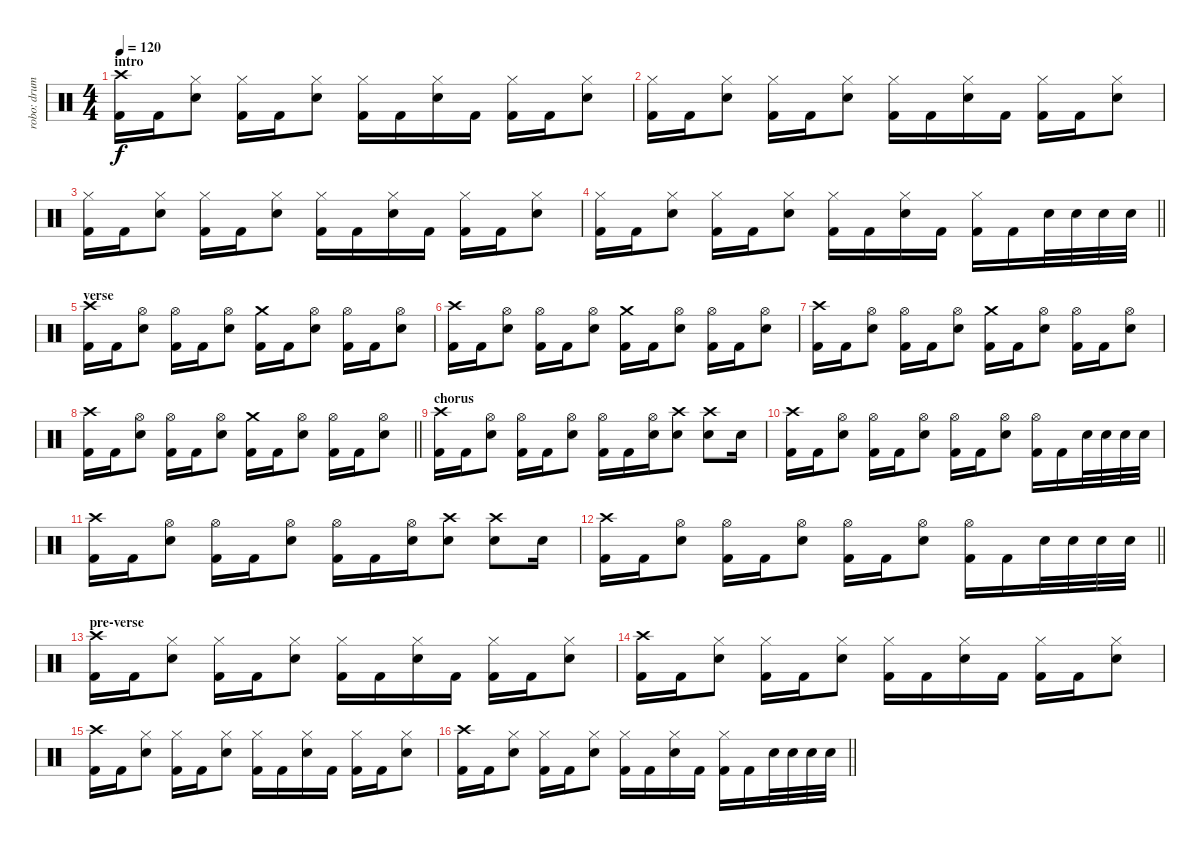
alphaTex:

\track ("robo: drums" "robo: drum") {instrument percussion}
\staff {score}
\articulation defaults
\ts (4 4)
\section ("" "intro")
\tempo 120
\clef neutral
\ks c
("Crash high (hit)" "Kick (hit) 2").16{dy f} "Kick (hit) 2".16 ("Hi-Hat (closed)" "Snare (hit) 2").8 ("Hi-Hat (closed)" "Kick (hit) 2").16 "Kick (hit) 2".16 ("Hi-Hat (closed)" "Snare (hit) 2").8 ("Hi-Hat (closed)" "Kick (hit) 2").16 "Kick (hit) 2".16 ("Hi-Hat (closed)" "Snare (hit) 2").16 "Kick (hit) 2".16 ("Hi-Hat (closed)" "Kick (hit) 2").16 "Kick (hit) 2".16 ("Hi-Hat (closed)" "Snare (hit) 2").8 |
("Hi-Hat (closed)" "Kick (hit) 2").16 "Kick (hit) 2".16 ("Hi-Hat (closed)" "Snare (hit) 2").8 ("Hi-Hat (closed)" "Kick (hit) 2").16 "Kick (hit) 2".16 ("Hi-Hat (closed)" "Snare (hit) 2").8 ("Hi-Hat (closed)" "Kick (hit) 2").16 "Kick (hit) 2".16 ("Hi-Hat (closed)" "Snare (hit) 2").16 "Kick (hit) 2".16 ("Hi-Hat (closed)" "Kick (hit) 2").16 "Kick (hit) 2".16 ("Hi-Hat (closed)" "Snare (hit) 2").8 |
("Hi-Hat (closed)" "Kick (hit) 2").16 "Kick (hit) 2".16 ("Hi-Hat (closed)" "Snare (hit) 2").8 ("Hi-Hat (closed)" "Kick (hit) 2").16 "Kick (hit) 2".16 ("Hi-Hat (closed)" "Snare (hit) 2").8 ("Hi-Hat (closed)" "Kick (hit) 2").16 "Kick (hit) 2".16 ("Hi-Hat (closed)" "Snare (hit) 2").16 "Kick (hit) 2".16 ("Hi-Hat (closed)" "Kick (hit) 2").16 "Kick (hit) 2".16 ("Hi-Hat (closed)" "Snare (hit) 2").8 |
\barLineRight lightlight
("Hi-Hat (closed)" "Kick (hit) 2").16 "Kick (hit) 2".16 ("Hi-Hat (closed)" "Snare (hit) 2").8 ("Hi-Hat (closed)" "Kick (hit) 2").16 "Kick (hit) 2".16 ("Hi-Hat (closed)" "Snare (hit) 2").8 ("Hi-Hat (closed)" "Kick (hit) 2").16 "Kick (hit) 2".16 ("Hi-Hat (closed)" "Snare (hit) 2").16 "Kick (hit) 2".16 ("Hi-Hat (closed)" "Kick (hit) 2").16 "Kick (hit) 2".16 "Snare (hit) 2".32 "Snare (hit) 2".32 "Snare (hit) 2".32 "Snare (hit) 2".32 |
\section ("" "verse")
("Crash high (hit)" "Kick (hit) 2").16 "Kick (hit) 2".16 ("Hi-Hat (open)" "Snare (hit) 2").8 ("Hi-Hat (open)" "Kick (hit) 2").16 "Kick (hit) 2".16 ("Hi-Hat (open)" "Snare (hit) 2").8 ("Crash medium (hit)" "Kick (hit) 2").16 "Kick (hit) 2".16 ("Hi-Hat (open)" "Snare (hit) 2").8 ("Hi-Hat (open)" "Kick (hit) 2").16 "Kick (hit) 2".16 ("Hi-Hat (open)" "Snare (hit) 2").8 |
("Crash high (hit)" "Kick (hit) 2").16 "Kick (hit) 2".16 ("Hi-Hat (open)" "Snare (hit) 2").8 ("Hi-Hat (open)" "Kick (hit) 2").16 "Kick (hit) 2".16 ("Hi-Hat (open)" "Snare (hit) 2").8 ("Crash medium (hit)" "Kick (hit) 2").16 "Kick (hit) 2".16 ("Hi-Hat (open)" "Snare (hit) 2").8 ("Hi-Hat (open)" "Kick (hit) 2").16 "Kick (hit) 2".16 ("Hi-Hat (open)" "Snare (hit) 2").8 |
("Crash high (hit)" "Kick (hit) 2").16 "Kick (hit) 2".16 ("Hi-Hat (open)" "Snare (hit) 2").8 ("Hi-Hat (open)" "Kick (hit) 2").16 "Kick (hit) 2".16 ("Hi-Hat (open)" "Snare (hit) 2").8 ("Crash medium (hit)" "Kick (hit) 2").16 "Kick (hit) 2".16 ("Hi-Hat (open)" "Snare (hit) 2").8 ("Hi-Hat (open)" "Kick (hit) 2").16 "Kick (hit) 2".16 ("Hi-Hat (open)" "Snare (hit) 2").8 |
\barLineRight lightlight
("Crash high (hit)" "Kick (hit) 2").16 "Kick (hit) 2".16 ("Hi-Hat (open)" "Snare (hit) 2").8 ("Hi-Hat (open)" "Kick (hit) 2").16 "Kick (hit) 2".16 ("Hi-Hat (open)" "Snare (hit) 2").8 ("Crash medium (hit)" "Kick (hit) 2").16 "Kick (hit) 2".16 ("Hi-Hat (open)" "Snare (hit) 2").8 ("Hi-Hat (open)" "Kick (hit) 2").16 "Kick (hit) 2".16 ("Hi-Hat (open)" "Snare (hit) 2").8 |
\section ("" "chorus")
("Crash high (hit)" "Kick (hit) 2").16 "Kick (hit) 2".16 ("Hi-Hat (open)" "Snare (hit) 2").8 ("Hi-Hat (open)" "Kick (hit) 2").16 "Kick (hit) 2".16 ("Hi-Hat (open)" "Snare (hit) 2").8 ("Hi-Hat (open)" "Kick (hit) 2").16 "Kick (hit) 2".16 ("Hi-Hat (open)" "Snare (hit) 2").16 ("Crash high (hit)" "Snare (hit) 2").8 ("Crash high (hit)" "Snare (hit) 2").8 "Snare (hit) 2".16 |
("Crash high (hit)" "Kick (hit) 2").16 "Kick (hit) 2".16 ("Hi-Hat (open)" "Snare (hit) 2").8 ("Hi-Hat (open)" "Kick (hit) 2").16 "Kick (hit) 2".16 ("Hi-Hat (open)" "Snare (hit) 2").8 ("Hi-Hat (open)" "Kick (hit) 2").16 "Kick (hit) 2".16 ("Hi-Hat (open)" "Snare (hit) 2").8 ("Hi-Hat (open)" "Kick (hit) 2").16 "Kick (hit) 2".16 "Snare (hit) 2".32 "Snare (hit) 2".32 "Snare (hit) 2".32 "Snare (hit) 2".32 |
("Crash high (hit)" "Kick (hit) 2").16 "Kick (hit) 2".16 ("Hi-Hat (open)" "Snare (hit) 2").8 ("Hi-Hat (open)" "Kick (hit) 2").16 "Kick (hit) 2".16 ("Hi-Hat (open)" "Snare (hit) 2").8 ("Hi-Hat (open)" "Kick (hit) 2").16 "Kick (hit) 2".16 ("Hi-Hat (open)" "Snare (hit) 2").16 ("Crash high (hit)" "Snare (hit) 2").8 ("Crash high (hit)" "Snare (hit) 2").8 "Snare (hit) 2".16 |
\barLineRight lightlight
("Crash high (hit)" "Kick (hit) 2").16 "Kick (hit) 2".16 ("Hi-Hat (open)" "Snare (hit) 2").8 ("Hi-Hat (open)" "Kick (hit) 2").16 "Kick (hit) 2".16 ("Hi-Hat (open)" "Snare (hit) 2").8 ("Hi-Hat (open)" "Kick (hit) 2").16 "Kick (hit) 2".16 ("Hi-Hat (open)" "Snare (hit) 2").8 ("Hi-Hat (open)" "Kick (hit) 2").16 "Kick (hit) 2".16 "Snare (hit) 2".32 "Snare (hit) 2".32 "Snare (hit) 2".32 "Snare (hit) 2".32 |
\section ("" "pre-verse")
("Crash high (hit)" "Kick (hit) 2").16 "Kick (hit) 2".16 ("Hi-Hat (closed)" "Snare (hit) 2").8 ("Hi-Hat (closed)" "Kick (hit) 2").16 "Kick (hit) 2".16 ("Hi-Hat (closed)" "Snare (hit) 2").8 ("Hi-Hat (closed)" "Kick (hit) 2").16 "Kick (hit) 2".16 ("Hi-Hat (closed)" "Snare (hit) 2").16 "Kick (hit) 2".16 ("Hi-Hat (closed)" "Kick (hit) 2").16 "Kick (hit) 2".16 ("Hi-Hat (closed)" "Snare (hit) 2").8 |
("Crash high (hit)" "Kick (hit) 2").16 "Kick (hit) 2".16 ("Hi-Hat (closed)" "Snare (hit) 2").8 ("Hi-Hat (closed)" "Kick (hit) 2").16 "Kick (hit) 2".16 ("Hi-Hat (closed)" "Snare (hit) 2").8 ("Hi-Hat (closed)" "Kick (hit) 2").16 "Kick (hit) 2".16 ("Hi-Hat (closed)" "Snare (hit) 2").16 "Kick (hit) 2".16 ("Hi-Hat (closed)" "Kick (hit) 2").16 "Kick (hit) 2".16 ("Hi-Hat (closed)" "Snare (hit) 2").8 |
("Crash high (hit)" "Kick (hit) 2").16 "Kick (hit) 2".16 ("Hi-Hat (closed)" "Snare (hit) 2").8 ("Hi-Hat (closed)" "Kick (hit) 2").16 "Kick (hit) 2".16 ("Hi-Hat (closed)" "Snare (hit) 2").8 ("Hi-Hat (closed)" "Kick (hit) 2").16 "Kick (hit) 2".16 ("Hi-Hat (closed)" "Snare (hit) 2").16 "Kick (hit) 2".16 ("Hi-Hat (closed)" "Kick (hit) 2").16 "Kick (hit) 2".16 ("Hi-Hat (closed)" "Snare (hit) 2").8 |
\barLineRight lightlight
("Crash high (hit)" "Kick (hit) 2").16 "Kick (hit) 2".16 ("Hi-Hat (closed)" "Snare (hit) 2").8 ("Hi-Hat (closed)" "Kick (hit) 2").16 "Kick (hit) 2".16 ("Hi-Hat (closed)" "Snare (hit) 2").8 ("Hi-Hat (closed)" "Kick (hit) 2").16 "Kick (hit) 2".16 ("Hi-Hat (closed)" "Snare (hit) 2").16 "Kick (hit) 2".16 ("Hi-Hat (closed)" "Kick (hit) 2").16 "Kick (hit) 2".16 "Snare (hit) 2".32 "Snare (hit) 2".32 "Snare (hit) 2".32 "Snare (hit) 2".32
